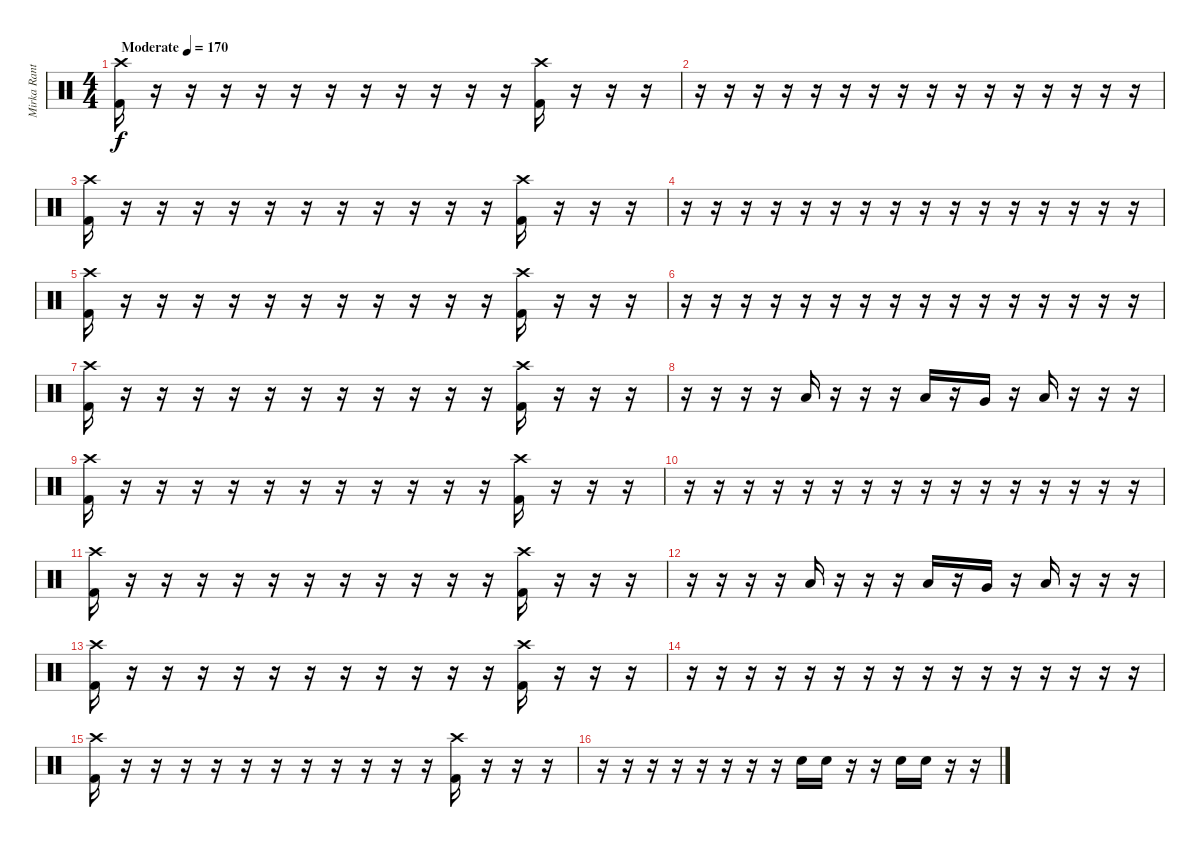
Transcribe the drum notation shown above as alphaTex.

\track ("Mirka Rantanen" "Mirka Rant") {instrument percussion}
\staff {score}
\articulation defaults
\ts (4 4)
\tempo (170 "Moderate")
\clef neutral
\ks c
("Crash high (hit)" "Kick (hit) 2").16{dy f} r.16 r.16 r.16 r.16 r.16 r.16 r.16 r.16 r.16 r.16 r.16 ("Crash high (hit)" "Kick (hit) 2").16 r.16 r.16 r.16 |
r.16 r.16 r.16 r.16 r.16 r.16 r.16 r.16 r.16 r.16 r.16 r.16 r.16 r.16 r.16 r.16 |
("Crash high (hit)" "Kick (hit) 2").16 r.16 r.16 r.16 r.16 r.16 r.16 r.16 r.16 r.16 r.16 r.16 ("Crash high (hit)" "Kick (hit) 2").16 r.16 r.16 r.16 |
r.16 r.16 r.16 r.16 r.16 r.16 r.16 r.16 r.16 r.16 r.16 r.16 r.16 r.16 r.16 r.16 |
("Crash high (hit)" "Kick (hit) 2").16 r.16 r.16 r.16 r.16 r.16 r.16 r.16 r.16 r.16 r.16 r.16 ("Crash high (hit)" "Kick (hit) 2").16 r.16 r.16 r.16 |
r.16 r.16 r.16 r.16 r.16 r.16 r.16 r.16 r.16 r.16 r.16 r.16 r.16 r.16 r.16 r.16 |
("Crash high (hit)" "Kick (hit) 2").16 r.16 r.16 r.16 r.16 r.16 r.16 r.16 r.16 r.16 r.16 r.16 ("Crash high (hit)" "Kick (hit) 2").16 r.16 r.16 r.16 |
r.16 r.16 r.16 r.16 "Low Tom (hit)".16 r.16 r.16 r.16 "Low Tom (hit)".16 r.16 "Very Low Tom (hit)".16 r.16 "Low Floor Tom (hit)".16 r.16 r.16 r.16 |
("Crash high (hit)" "Kick (hit) 2").16 r.16 r.16 r.16 r.16 r.16 r.16 r.16 r.16 r.16 r.16 r.16 ("Crash high (hit)" "Kick (hit) 2").16 r.16 r.16 r.16 |
r.16 r.16 r.16 r.16 r.16 r.16 r.16 r.16 r.16 r.16 r.16 r.16 r.16 r.16 r.16 r.16 |
("Crash high (hit)" "Kick (hit) 2").16 r.16 r.16 r.16 r.16 r.16 r.16 r.16 r.16 r.16 r.16 r.16 ("Crash high (hit)" "Kick (hit) 2").16 r.16 r.16 r.16 |
r.16 r.16 r.16 r.16 "Low Tom (hit)".16 r.16 r.16 r.16 "Low Tom (hit)".16 r.16 "Very Low Tom (hit)".16 r.16 "Low Floor Tom (hit)".16 r.16 r.16 r.16 |
("Crash high (hit)" "Kick (hit) 2").16 r.16 r.16 r.16 r.16 r.16 r.16 r.16 r.16 r.16 r.16 r.16 ("Crash high (hit)" "Kick (hit) 2").16 r.16 r.16 r.16 |
r.16 r.16 r.16 r.16 r.16 r.16 r.16 r.16 r.16 r.16 r.16 r.16 r.16 r.16 r.16 r.16 |
("Crash high (hit)" "Kick (hit) 2").16 r.16 r.16 r.16 r.16 r.16 r.16 r.16 r.16 r.16 r.16 r.16 ("Crash high (hit)" "Kick (hit) 2").16 r.16 r.16 r.16 |
r.16 r.16 r.16 r.16 r.16 r.16 r.16 r.16 "Snare (hit) 2".16 "Snare (hit) 2".16 r.16 r.16 "Snare (hit) 2".16 "Snare (hit) 2".16 r.16 r.16
